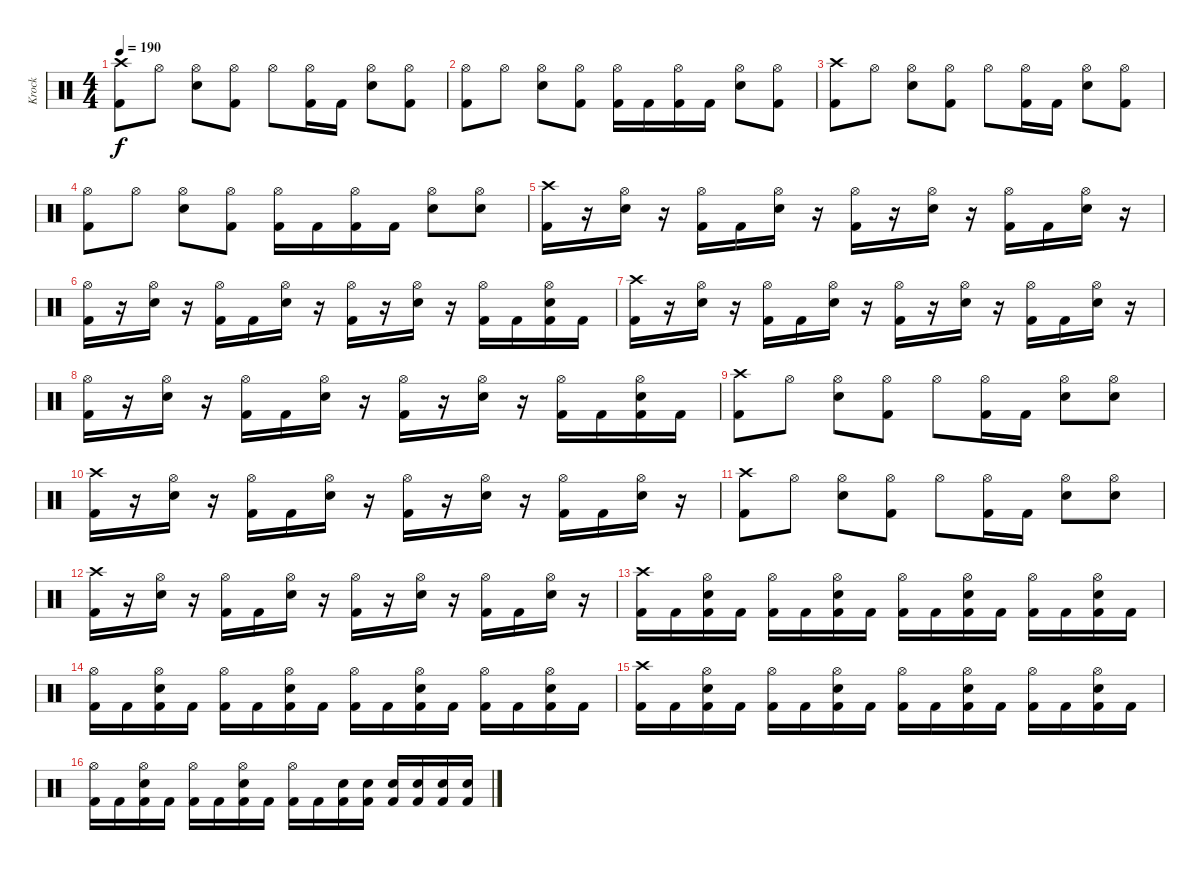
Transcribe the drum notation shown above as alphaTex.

\track ("Krock" "Krock") {instrument percussion}
\staff {score}
\articulation defaults
\ts (4 4)
\tempo 190
\clef neutral
\ks c
("Crash high (hit)" "Kick (hit) 2").8{dy f} "Hi-Hat (open)".8 ("Hi-Hat (open)" "Electric Snare (hit)").8 ("Hi-Hat (open)" "Kick (hit) 2").8 "Hi-Hat (open)".8 ("Hi-Hat (open)" "Kick (hit) 2").16 "Kick (hit) 2".16 ("Hi-Hat (open)" "Electric Snare (hit)").8 ("Hi-Hat (open)" "Kick (hit) 2").8 |
("Hi-Hat (open)" "Kick (hit) 2").8 "Hi-Hat (open)".8 ("Hi-Hat (open)" "Electric Snare (hit)").8 ("Hi-Hat (open)" "Kick (hit) 2").8 ("Hi-Hat (open)" "Kick (hit) 2").16 "Kick (hit) 2".16 ("Hi-Hat (open)" "Kick (hit) 2").16 "Kick (hit) 2".16 ("Hi-Hat (open)" "Electric Snare (hit)").8 ("Hi-Hat (open)" "Kick (hit) 2").8 |
("Crash high (hit)" "Kick (hit) 2").8 "Hi-Hat (open)".8 ("Hi-Hat (open)" "Electric Snare (hit)").8 ("Hi-Hat (open)" "Kick (hit) 2").8 "Hi-Hat (open)".8 ("Hi-Hat (open)" "Kick (hit) 2").16 "Kick (hit) 2".16 ("Hi-Hat (open)" "Electric Snare (hit)").8 ("Hi-Hat (open)" "Kick (hit) 2").8 |
("Hi-Hat (open)" "Kick (hit) 2").8 "Hi-Hat (open)".8 ("Hi-Hat (open)" "Electric Snare (hit)").8 ("Hi-Hat (open)" "Kick (hit) 2").8 ("Hi-Hat (open)" "Kick (hit) 2").16 "Kick (hit) 2".16 ("Hi-Hat (open)" "Kick (hit) 2").16 "Kick (hit) 2".16 ("Hi-Hat (open)" "Electric Snare (hit)").8 ("Hi-Hat (open)" "Electric Snare (hit)").8 |
("Crash high (hit)" "Kick (hit) 2").16 r.16 ("Hi-Hat (open)" "Electric Snare (hit)").16 r.16 ("Hi-Hat (open)" "Kick (hit) 2").16 "Kick (hit) 2".16 ("Hi-Hat (open)" "Electric Snare (hit)").16 r.16 ("Hi-Hat (open)" "Kick (hit) 2").16 r.16 ("Hi-Hat (open)" "Electric Snare (hit)").16 r.16 ("Hi-Hat (open)" "Kick (hit) 2").16 "Kick (hit) 2".16 ("Hi-Hat (open)" "Electric Snare (hit)").16 r.16 |
("Hi-Hat (open)" "Kick (hit) 2").16 r.16 ("Hi-Hat (open)" "Electric Snare (hit)").16 r.16 ("Hi-Hat (open)" "Kick (hit) 2").16 "Kick (hit) 2".16 ("Hi-Hat (open)" "Electric Snare (hit)").16 r.16 ("Hi-Hat (open)" "Kick (hit) 2").16 r.16 ("Hi-Hat (open)" "Electric Snare (hit)").16 r.16 ("Hi-Hat (open)" "Kick (hit) 2").16 "Kick (hit) 2".16 ("Hi-Hat (open)" "Electric Snare (hit)" "Kick (hit) 2").16 "Kick (hit) 2".16 |
("Crash high (hit)" "Kick (hit) 2").16 r.16 ("Hi-Hat (open)" "Electric Snare (hit)").16 r.16 ("Hi-Hat (open)" "Kick (hit) 2").16 "Kick (hit) 2".16 ("Hi-Hat (open)" "Electric Snare (hit)").16 r.16 ("Hi-Hat (open)" "Kick (hit) 2").16 r.16 ("Hi-Hat (open)" "Electric Snare (hit)").16 r.16 ("Hi-Hat (open)" "Kick (hit) 2").16 "Kick (hit) 2".16 ("Hi-Hat (open)" "Electric Snare (hit)").16 r.16 |
("Hi-Hat (open)" "Kick (hit) 2").16 r.16 ("Hi-Hat (open)" "Electric Snare (hit)").16 r.16 ("Hi-Hat (open)" "Kick (hit) 2").16 "Kick (hit) 2".16 ("Hi-Hat (open)" "Electric Snare (hit)").16 r.16 ("Hi-Hat (open)" "Kick (hit) 2").16 r.16 ("Hi-Hat (open)" "Electric Snare (hit)").16 r.16 ("Hi-Hat (open)" "Kick (hit) 2").16 "Kick (hit) 2".16 ("Hi-Hat (open)" "Electric Snare (hit)" "Kick (hit) 2").16 "Kick (hit) 2".16 |
("Crash high (hit)" "Kick (hit) 2").8 "Hi-Hat (open)".8 ("Hi-Hat (open)" "Electric Snare (hit)").8 ("Hi-Hat (open)" "Kick (hit) 2").8 "Hi-Hat (open)".8 ("Hi-Hat (open)" "Kick (hit) 2").16 "Kick (hit) 2".16 ("Hi-Hat (open)" "Electric Snare (hit)").8 ("Hi-Hat (open)" "Electric Snare (hit)").8 |
("Crash high (hit)" "Kick (hit) 2").16 r.16 ("Hi-Hat (open)" "Electric Snare (hit)").16 r.16 ("Hi-Hat (open)" "Kick (hit) 2").16 "Kick (hit) 2".16 ("Hi-Hat (open)" "Electric Snare (hit)").16 r.16 ("Hi-Hat (open)" "Kick (hit) 2").16 r.16 ("Hi-Hat (open)" "Electric Snare (hit)").16 r.16 ("Hi-Hat (open)" "Kick (hit) 2").16 "Kick (hit) 2".16 ("Hi-Hat (open)" "Electric Snare (hit)").16 r.16 |
("Crash high (hit)" "Kick (hit) 2").8 "Hi-Hat (open)".8 ("Hi-Hat (open)" "Electric Snare (hit)").8 ("Hi-Hat (open)" "Kick (hit) 2").8 "Hi-Hat (open)".8 ("Hi-Hat (open)" "Kick (hit) 2").16 "Kick (hit) 2".16 ("Hi-Hat (open)" "Electric Snare (hit)").8 ("Hi-Hat (open)" "Electric Snare (hit)").8 |
("Crash high (hit)" "Kick (hit) 2").16 r.16 ("Hi-Hat (open)" "Electric Snare (hit)").16 r.16 ("Hi-Hat (open)" "Kick (hit) 2").16 "Kick (hit) 2".16 ("Hi-Hat (open)" "Electric Snare (hit)").16 r.16 ("Hi-Hat (open)" "Kick (hit) 2").16 r.16 ("Hi-Hat (open)" "Electric Snare (hit)").16 r.16 ("Hi-Hat (open)" "Kick (hit) 2").16 "Kick (hit) 2".16 ("Hi-Hat (open)" "Electric Snare (hit)").16 r.16 |
("Crash high (hit)" "Kick (hit) 2").16 "Kick (hit) 2".16 ("Hi-Hat (open)" "Electric Snare (hit)" "Kick (hit) 2").16 "Kick (hit) 2".16 ("Hi-Hat (open)" "Kick (hit) 2").16 "Kick (hit) 2".16 ("Hi-Hat (open)" "Electric Snare (hit)" "Kick (hit) 2").16 "Kick (hit) 2".16 ("Hi-Hat (open)" "Kick (hit) 2").16 "Kick (hit) 2".16 ("Hi-Hat (open)" "Electric Snare (hit)" "Kick (hit) 2").16 "Kick (hit) 2".16 ("Hi-Hat (open)" "Kick (hit) 2").16 "Kick (hit) 2".16 ("Hi-Hat (open)" "Electric Snare (hit)" "Kick (hit) 2").16 "Kick (hit) 2".16 |
("Hi-Hat (open)" "Kick (hit) 2").16 "Kick (hit) 2".16 ("Hi-Hat (open)" "Electric Snare (hit)" "Kick (hit) 2").16 "Kick (hit) 2".16 ("Hi-Hat (open)" "Kick (hit) 2").16 "Kick (hit) 2".16 ("Hi-Hat (open)" "Electric Snare (hit)" "Kick (hit) 2").16 "Kick (hit) 2".16 ("Hi-Hat (open)" "Kick (hit) 2").16 "Kick (hit) 2".16 ("Hi-Hat (open)" "Electric Snare (hit)" "Kick (hit) 2").16 "Kick (hit) 2".16 ("Hi-Hat (open)" "Kick (hit) 2").16 "Kick (hit) 2".16 ("Hi-Hat (open)" "Electric Snare (hit)" "Kick (hit) 2").16 "Kick (hit) 2".16 |
("Crash high (hit)" "Kick (hit) 2").16 "Kick (hit) 2".16 ("Hi-Hat (open)" "Electric Snare (hit)" "Kick (hit) 2").16 "Kick (hit) 2".16 ("Hi-Hat (open)" "Kick (hit) 2").16 "Kick (hit) 2".16 ("Hi-Hat (open)" "Electric Snare (hit)" "Kick (hit) 2").16 "Kick (hit) 2".16 ("Hi-Hat (open)" "Kick (hit) 2").16 "Kick (hit) 2".16 ("Hi-Hat (open)" "Electric Snare (hit)" "Kick (hit) 2").16 "Kick (hit) 2".16 ("Hi-Hat (open)" "Kick (hit) 2").16 "Kick (hit) 2".16 ("Hi-Hat (open)" "Electric Snare (hit)" "Kick (hit) 2").16 "Kick (hit) 2".16 |
("Hi-Hat (open)" "Kick (hit) 2").16 "Kick (hit) 2".16 ("Hi-Hat (open)" "Electric Snare (hit)" "Kick (hit) 2").16 "Kick (hit) 2".16 ("Hi-Hat (open)" "Kick (hit) 2").16 "Kick (hit) 2".16 ("Hi-Hat (open)" "Electric Snare (hit)" "Kick (hit) 2").16 "Kick (hit) 2".16 ("Hi-Hat (open)" "Kick (hit) 2").16 "Kick (hit) 2".16 ("Electric Snare (hit)" "Kick (hit) 2").16 ("Electric Snare (hit)" "Kick (hit) 2").16 ("Electric Snare (hit)" "Kick (hit) 2").16 ("Electric Snare (hit)" "Kick (hit) 2").16 ("Electric Snare (hit)" "Kick (hit) 2").16 ("Electric Snare (hit)" "Kick (hit) 2").16
